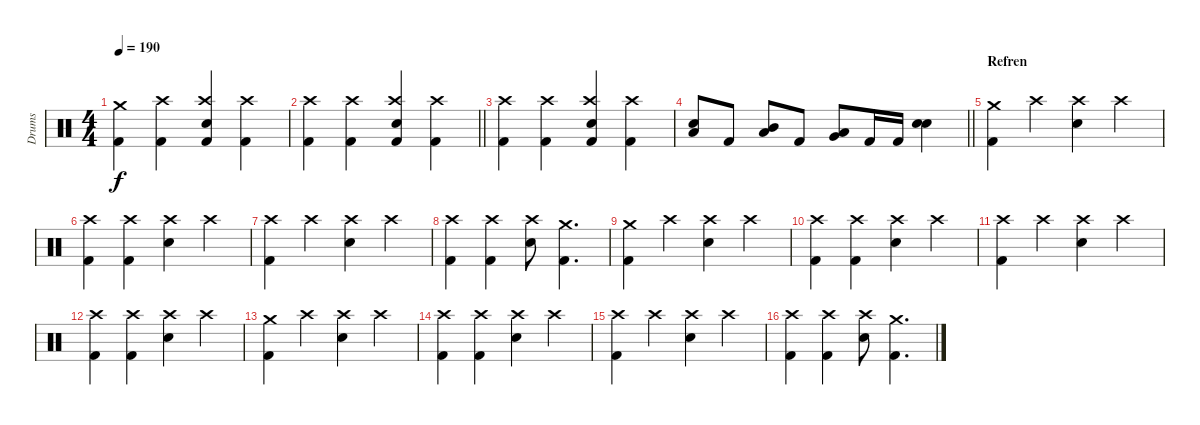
\track ("Drums" "Drums") {instrument percussion}
\staff {score}
\articulation defaults
\ts (4 4)
\tempo 190
\clef neutral
\ks c
("Crash medium (hit)" "Kick (hit) 2").4{dy f} ("Crash high (hit)" "Kick (hit) 2").4 ("Crash high (hit)" "Snare (hit) 2" "Kick (hit) 2").4 ("Crash high (hit)" "Kick (hit) 2").4 |
\barLineRight lightlight
("Crash high (hit)" "Kick (hit) 2").4 ("Crash high (hit)" "Kick (hit) 2").4 ("Crash high (hit)" "Snare (hit) 2" "Kick (hit) 2").4 ("Crash high (hit)" "Kick (hit) 2").4 |
("Crash high (hit)" "Kick (hit) 2").4 ("Crash high (hit)" "Kick (hit) 2").4 ("Crash high (hit)" "Snare (hit) 2" "Kick (hit) 2").4 ("Crash high (hit)" "Kick (hit) 2").4 |
\barLineRight lightlight
("Snare (hit) 2" "Low Tom (hit)").8 "Kick (hit) 2".8 ("Low Tom (hit)" "Mid Tom (hit)").8 "Kick (hit) 2".8 ("Low Tom (hit)" "Very Low Tom (hit)").8 "Kick (hit) 2".16 "Kick (hit) 2".16 ("Snare (hit) 2" "Snare (hit) 2").4 |
\section ("" "Refren")
("Crash medium (hit)" "Kick (hit) 2").4 "Crash high (hit)".4 ("Crash high (hit)" "Snare (hit) 2").4 "Crash high (hit)".4 |
("Crash high (hit)" "Kick (hit) 2").4 ("Crash high (hit)" "Kick (hit) 2").4 ("Crash high (hit)" "Snare (hit) 2").4 "Crash high (hit)".4 |
("Crash high (hit)" "Kick (hit) 2").4 "Crash high (hit)".4 ("Crash high (hit)" "Snare (hit) 2").4 "Crash high (hit)".4 |
("Crash high (hit)" "Kick (hit) 2").4 ("Crash high (hit)" "Kick (hit) 2").4 ("Crash high (hit)" "Snare (hit) 2").8 ("Crash medium (hit)" "Kick (hit) 2").4{d} |
("Crash medium (hit)" "Kick (hit) 2").4 "Crash high (hit)".4 ("Crash high (hit)" "Snare (hit) 2").4 "Crash high (hit)".4 |
("Crash high (hit)" "Kick (hit) 2").4 ("Crash high (hit)" "Kick (hit) 2").4 ("Crash high (hit)" "Snare (hit) 2").4 "Crash high (hit)".4 |
("Crash high (hit)" "Kick (hit) 2").4 "Crash high (hit)".4 ("Crash high (hit)" "Snare (hit) 2").4 "Crash high (hit)".4 |
("Crash high (hit)" "Kick (hit) 2").4 ("Crash high (hit)" "Kick (hit) 2").4 ("Crash high (hit)" "Snare (hit) 2").4 "Crash high (hit)".4 |
("Crash medium (hit)" "Kick (hit) 2").4 "Crash high (hit)".4 ("Crash high (hit)" "Snare (hit) 2").4 "Crash high (hit)".4 |
("Crash high (hit)" "Kick (hit) 2").4 ("Crash high (hit)" "Kick (hit) 2").4 ("Crash high (hit)" "Snare (hit) 2").4 "Crash high (hit)".4 |
("Crash high (hit)" "Kick (hit) 2").4 "Crash high (hit)".4 ("Crash high (hit)" "Snare (hit) 2").4 "Crash high (hit)".4 |
("Crash high (hit)" "Kick (hit) 2").4 ("Crash high (hit)" "Kick (hit) 2").4 ("Crash high (hit)" "Snare (hit) 2").8 ("Crash medium (hit)" "Kick (hit) 2").4{d}
